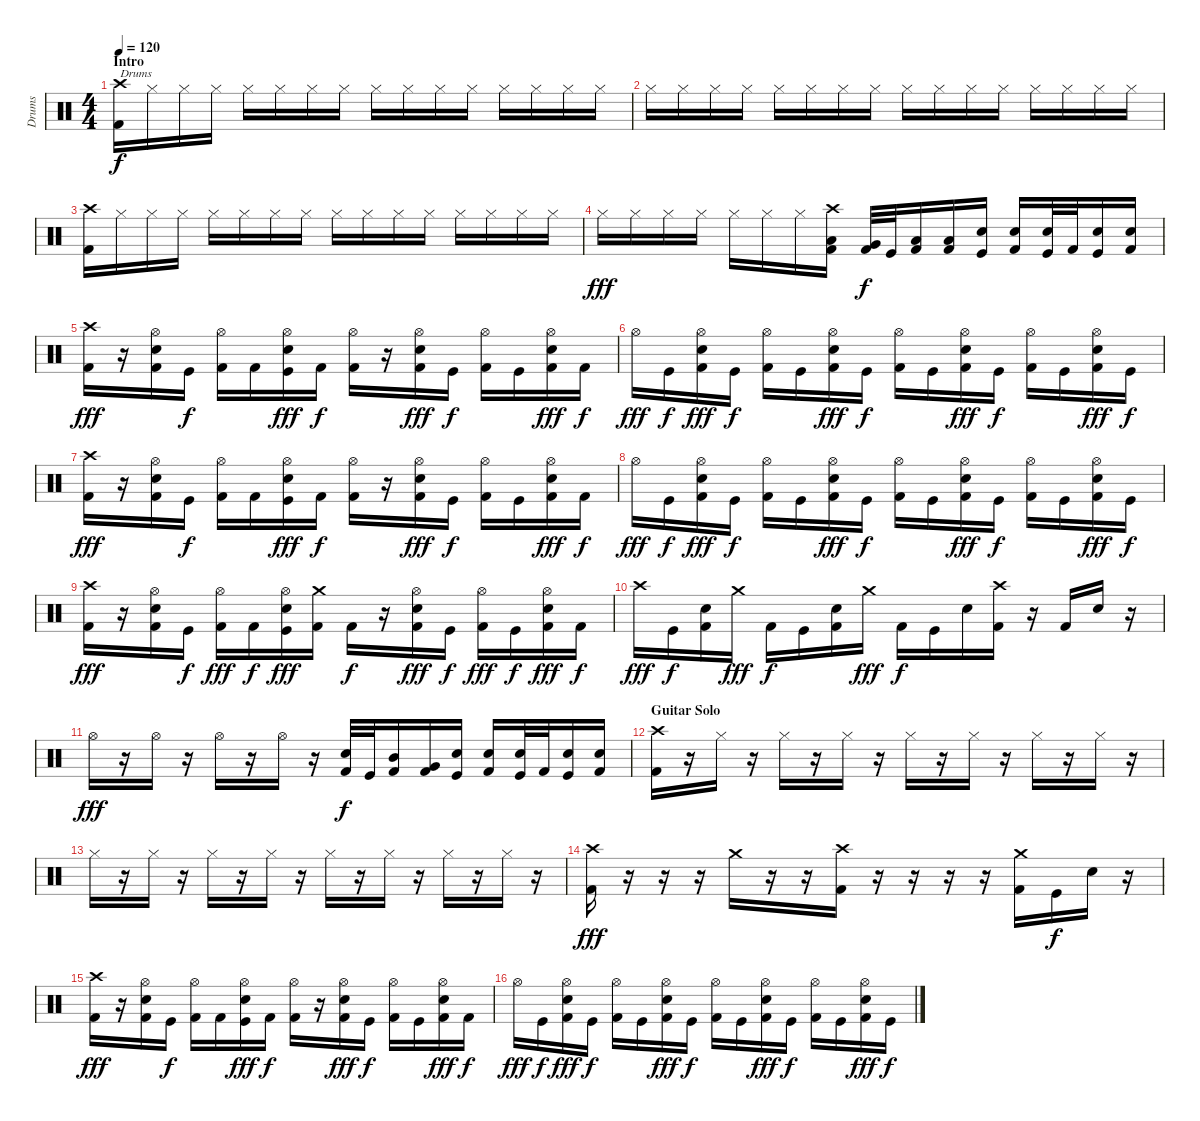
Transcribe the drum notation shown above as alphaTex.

\track ("Drums" "Drums") {instrument percussion}
\staff {score}
\articulation defaults
\ts (4 4)
\section ("" "Intro")
\tempo 120
\clef neutral
\ks c
("Crash high (hit)" "Kick (hit) 2").16{txt "Drums" dy f} "Hi-Hat (closed)".16 "Hi-Hat (closed)".16 "Hi-Hat (closed)".16 "Hi-Hat (closed)".16 "Hi-Hat (closed)".16 "Hi-Hat (closed)".16 "Hi-Hat (closed)".16 "Hi-Hat (closed)".16 "Hi-Hat (closed)".16 "Hi-Hat (closed)".16 "Hi-Hat (closed)".16 "Hi-Hat (closed)".16 "Hi-Hat (closed)".16 "Hi-Hat (closed)".16 "Hi-Hat (closed)".16 |
"Hi-Hat (closed)".16 "Hi-Hat (closed)".16 "Hi-Hat (closed)".16 "Hi-Hat (closed)".16 "Hi-Hat (closed)".16 "Hi-Hat (closed)".16 "Hi-Hat (closed)".16 "Hi-Hat (closed)".16 "Hi-Hat (closed)".16 "Hi-Hat (closed)".16 "Hi-Hat (closed)".16 "Hi-Hat (closed)".16 "Hi-Hat (closed)".16 "Hi-Hat (closed)".16 "Hi-Hat (closed)".16 "Hi-Hat (closed)".16 |
("Crash high (hit)" "Kick (hit) 2").16 "Hi-Hat (closed)".16 "Hi-Hat (closed)".16 "Hi-Hat (closed)".16 "Hi-Hat (closed)".16 "Hi-Hat (closed)".16 "Hi-Hat (closed)".16 "Hi-Hat (closed)".16 "Hi-Hat (closed)".16 "Hi-Hat (closed)".16 "Hi-Hat (closed)".16 "Hi-Hat (closed)".16 "Hi-Hat (closed)".16 "Hi-Hat (closed)".16 "Hi-Hat (closed)".16 "Hi-Hat (closed)".16 |
"Hi-Hat (closed)".16{dy fff} "Hi-Hat (closed)".16 "Hi-Hat (closed)".16 "Hi-Hat (closed)".16 "Hi-Hat (closed)".16 "Hi-Hat (closed)".16 "Hi-Hat (closed)".16 ("Crash high (hit)" "Low Tom (hit)" "Kick (hit) 2").16 ("Very Low Tom (hit)" "Kick (hit) 2").32{dy f} "Kick (hit)".32 ("Low Floor Tom (hit)" "Kick (hit) 2").16 ("Low Tom (hit)" "Kick (hit) 2").16 ("Snare (hit) 2" "Kick (hit)").16 ("Snare (hit) 2" "Kick (hit) 2").16 ("Snare (hit) 2" "Kick (hit)").32 "Kick (hit) 2".32 ("Snare (hit) 2" "Kick (hit)").16 ("Snare (hit) 2" "Kick (hit) 2").16 |
("Crash high (hit)" "Kick (hit) 2").16{dy fff} r.16 ("Hi-Hat (open)" "Snare (hit) 2" "Kick (hit) 2").16 "Kick (hit)".16{dy f} ("Hi-Hat (open)" "Kick (hit) 2").16 "Kick (hit) 2".16 ("Hi-Hat (open)" "Snare (hit) 2" "Kick (hit)").16{dy fff} "Kick (hit) 2".16{dy f} ("Hi-Hat (open)" "Kick (hit) 2").16 r.16 ("Hi-Hat (open)" "Snare (hit) 2" "Kick (hit) 2").16{dy fff} "Kick (hit)".16{dy f} ("Hi-Hat (open)" "Kick (hit) 2").16 "Kick (hit)".16 ("Hi-Hat (open)" "Snare (hit) 2" "Kick (hit) 2").16{dy fff} "Kick (hit) 2".16{dy f} |
"Hi-Hat (open)".16{dy fff} "Kick (hit)".16{dy f} ("Hi-Hat (open)" "Snare (hit) 2" "Kick (hit) 2").16{dy fff} "Kick (hit)".16{dy f} ("Hi-Hat (open)" "Kick (hit) 2").16 "Kick (hit)".16 ("Hi-Hat (open)" "Snare (hit) 2" "Kick (hit) 2").16{dy fff} "Kick (hit)".16{dy f} ("Hi-Hat (open)" "Kick (hit) 2").16 "Kick (hit)".16 ("Hi-Hat (open)" "Snare (hit) 2" "Kick (hit) 2").16{dy fff} "Kick (hit)".16{dy f} ("Hi-Hat (open)" "Kick (hit) 2").16 "Kick (hit)".16 ("Hi-Hat (open)" "Snare (hit) 2" "Kick (hit) 2").16{dy fff} "Kick (hit)".16{dy f} |
("Crash high (hit)" "Kick (hit) 2").16{dy fff} r.16 ("Hi-Hat (open)" "Snare (hit) 2" "Kick (hit) 2").16 "Kick (hit)".16{dy f} ("Hi-Hat (open)" "Kick (hit) 2").16 "Kick (hit) 2".16 ("Hi-Hat (open)" "Snare (hit) 2" "Kick (hit)").16{dy fff} "Kick (hit) 2".16{dy f} ("Hi-Hat (open)" "Kick (hit) 2").16 r.16 ("Hi-Hat (open)" "Snare (hit) 2" "Kick (hit) 2").16{dy fff} "Kick (hit)".16{dy f} ("Hi-Hat (open)" "Kick (hit) 2").16 "Kick (hit)".16 ("Hi-Hat (open)" "Snare (hit) 2" "Kick (hit) 2").16{dy fff} "Kick (hit) 2".16{dy f} |
"Hi-Hat (open)".16{dy fff} "Kick (hit)".16{dy f} ("Hi-Hat (open)" "Snare (hit) 2" "Kick (hit) 2").16{dy fff} "Kick (hit)".16{dy f} ("Hi-Hat (open)" "Kick (hit) 2").16 "Kick (hit)".16 ("Hi-Hat (open)" "Snare (hit) 2" "Kick (hit) 2").16{dy fff} "Kick (hit)".16{dy f} ("Hi-Hat (open)" "Kick (hit) 2").16 "Kick (hit)".16 ("Hi-Hat (open)" "Snare (hit) 2" "Kick (hit) 2").16{dy fff} "Kick (hit)".16{dy f} ("Hi-Hat (open)" "Kick (hit) 2").16 "Kick (hit)".16 ("Hi-Hat (open)" "Snare (hit) 2" "Kick (hit) 2").16{dy fff} "Kick (hit)".16{dy f} |
("Crash high (hit)" "Kick (hit) 2").16{dy fff} r.16 ("Hi-Hat (open)" "Snare (hit) 2" "Kick (hit) 2").16 "Kick (hit)".16{dy f} ("Hi-Hat (open)" "Kick (hit) 2").16{dy fff} "Kick (hit) 2".16{dy f} ("Hi-Hat (open)" "Snare (hit) 2" "Kick (hit)").16{dy fff} ("Crash medium (hit)" "Kick (hit) 2").16 "Kick (hit) 2".16{dy f} r.16 ("Hi-Hat (open)" "Snare (hit) 2" "Kick (hit) 2").16{dy fff} "Kick (hit)".16{dy f} ("Hi-Hat (open)" "Kick (hit) 2").16{dy fff} "Kick (hit)".16{dy f} ("Hi-Hat (open)" "Snare (hit) 2" "Kick (hit) 2").16{dy fff} "Kick (hit) 2".16{dy f} |
"Crash high (hit)".16{dy fff} "Kick (hit)".16{dy f} ("Snare (hit) 2" "Kick (hit) 2").16 "Crash medium (hit)".16{dy fff} "Kick (hit) 2".16{dy f} "Kick (hit)".16 ("Snare (hit) 2" "Kick (hit) 2").16 "Crash medium (hit)".16{dy fff} "Kick (hit) 2".16{dy f} "Kick (hit)".16 "Snare (hit) 2".16 ("Crash high (hit)" "Kick (hit) 2").16 r.16 "Kick (hit) 2".16 "Snare (hit) 2".16 r.16 |
"Hi-Hat (open)".16{dy fff} r.16 "Hi-Hat (open)".16 r.16 "Hi-Hat (open)".16 r.16 "Hi-Hat (open)".16 r.16 ("Snare (hit) 2" "Kick (hit) 2").32{dy f} "Kick (hit)".32 ("Mid Tom (hit)" "Kick (hit) 2").16 ("Very Low Tom (hit)" "Kick (hit) 2").16 ("Snare (hit) 2" "Kick (hit)").16 ("Snare (hit) 2" "Kick (hit) 2").16 ("Snare (hit) 2" "Kick (hit)").32 "Kick (hit) 2".32 ("Snare (hit) 2" "Kick (hit)").16 ("Snare (hit) 2" "Kick (hit) 2").16 |
\section ("" "Guitar Solo")
("Crash high (hit)" "Kick (hit) 2").16 r.16 "Hi-Hat (closed)".16 r.16 "Hi-Hat (closed)".16 r.16 "Hi-Hat (closed)".16 r.16 "Hi-Hat (closed)".16 r.16 "Hi-Hat (closed)".16 r.16 "Hi-Hat (closed)".16 r.16 "Hi-Hat (closed)".16 r.16 |
"Hi-Hat (closed)".16 r.16 "Hi-Hat (closed)".16 r.16 "Hi-Hat (closed)".16 r.16 "Hi-Hat (closed)".16 r.16 "Hi-Hat (closed)".16 r.16 "Hi-Hat (closed)".16 r.16 "Hi-Hat (closed)".16 r.16 "Hi-Hat (closed)".16 r.16 |
("Crash high (hit)" "Kick (hit) 2").16{dy fff} r.16 r.16 r.16 "Crash medium (hit)".16 r.16 r.16 ("Crash high (hit)" "Kick (hit) 2").16 r.16 r.16 r.16 r.16 ("Crash medium (hit)" "Kick (hit) 2").16 "Kick (hit)".16{dy f} "Snare (hit) 2".16 r.16 |
("Crash high (hit)" "Kick (hit) 2").16{dy fff} r.16 ("Hi-Hat (open)" "Snare (hit) 2" "Kick (hit) 2").16 "Kick (hit)".16{dy f} ("Hi-Hat (open)" "Kick (hit) 2").16 "Kick (hit) 2".16 ("Hi-Hat (open)" "Snare (hit) 2" "Kick (hit)").16{dy fff} "Kick (hit) 2".16{dy f} ("Hi-Hat (open)" "Kick (hit) 2").16 r.16 ("Hi-Hat (open)" "Snare (hit) 2" "Kick (hit) 2").16{dy fff} "Kick (hit)".16{dy f} ("Hi-Hat (open)" "Kick (hit) 2").16 "Kick (hit)".16 ("Hi-Hat (open)" "Snare (hit) 2" "Kick (hit) 2").16{dy fff} "Kick (hit) 2".16{dy f} |
"Hi-Hat (open)".16{dy fff} "Kick (hit)".16{dy f} ("Hi-Hat (open)" "Snare (hit) 2" "Kick (hit) 2").16{dy fff} "Kick (hit)".16{dy f} ("Hi-Hat (open)" "Kick (hit) 2").16 "Kick (hit)".16 ("Hi-Hat (open)" "Snare (hit) 2" "Kick (hit) 2").16{dy fff} "Kick (hit)".16{dy f} ("Hi-Hat (open)" "Kick (hit) 2").16 "Kick (hit)".16 ("Hi-Hat (open)" "Snare (hit) 2" "Kick (hit) 2").16{dy fff} "Kick (hit)".16{dy f} ("Hi-Hat (open)" "Kick (hit) 2").16 "Kick (hit)".16 ("Hi-Hat (open)" "Snare (hit) 2" "Kick (hit) 2").16{dy fff} "Kick (hit)".16{dy f}
